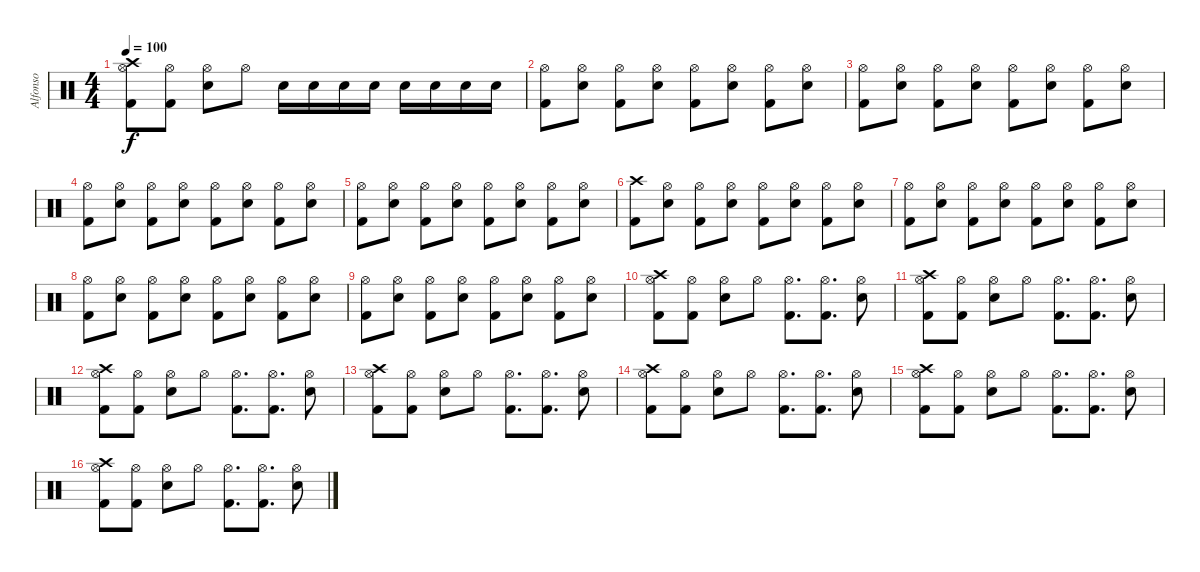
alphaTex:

\track ("Alfonso" "Alfonso") {instrument percussion}
\staff {score}
\articulation defaults
\ts (4 4)
\tempo 100
\clef neutral
\ks c
("Hi-Hat (open)" "Kick (hit) 2" "Crash high (hit)").8{dy f} ("Hi-Hat (open)" "Kick (hit) 2").8 ("Hi-Hat (open)" "Snare (hit) 2").8 "Hi-Hat (open)".8 "Snare (hit) 2".16 "Snare (hit) 2".16 "Snare (hit) 2".16 "Snare (hit) 2".16 "Snare (hit) 2".16 "Snare (hit) 2".16 "Snare (hit) 2".16 "Snare (hit) 2".16 |
("Hi-Hat (open)" "Kick (hit) 2").8 ("Hi-Hat (open)" "Electric Snare (hit)").8 ("Hi-Hat (open)" "Kick (hit) 2").8 ("Hi-Hat (open)" "Electric Snare (hit)").8 ("Hi-Hat (open)" "Kick (hit) 2").8 ("Hi-Hat (open)" "Electric Snare (hit)").8 ("Hi-Hat (open)" "Kick (hit) 2").8 ("Hi-Hat (open)" "Electric Snare (hit)").8 |
("Hi-Hat (open)" "Kick (hit) 2").8 ("Hi-Hat (open)" "Electric Snare (hit)").8 ("Hi-Hat (open)" "Kick (hit) 2").8 ("Hi-Hat (open)" "Electric Snare (hit)").8 ("Hi-Hat (open)" "Kick (hit) 2").8 ("Hi-Hat (open)" "Electric Snare (hit)").8 ("Hi-Hat (open)" "Kick (hit) 2").8 ("Hi-Hat (open)" "Electric Snare (hit)").8 |
("Hi-Hat (open)" "Kick (hit) 2").8 ("Hi-Hat (open)" "Electric Snare (hit)").8 ("Hi-Hat (open)" "Kick (hit) 2").8 ("Hi-Hat (open)" "Electric Snare (hit)").8 ("Hi-Hat (open)" "Kick (hit) 2").8 ("Hi-Hat (open)" "Electric Snare (hit)").8 ("Hi-Hat (open)" "Kick (hit) 2").8 ("Hi-Hat (open)" "Electric Snare (hit)").8 |
("Hi-Hat (open)" "Kick (hit) 2").8 ("Hi-Hat (open)" "Electric Snare (hit)").8 ("Hi-Hat (open)" "Kick (hit) 2").8 ("Hi-Hat (open)" "Electric Snare (hit)").8 ("Hi-Hat (open)" "Kick (hit) 2").8 ("Hi-Hat (open)" "Electric Snare (hit)").8 ("Hi-Hat (open)" "Kick (hit) 2").8 ("Hi-Hat (open)" "Electric Snare (hit)").8 |
("Crash high (hit)" "Kick (hit) 2").8 ("Hi-Hat (open)" "Electric Snare (hit)").8 ("Hi-Hat (open)" "Kick (hit) 2").8 ("Hi-Hat (open)" "Electric Snare (hit)").8 ("Hi-Hat (open)" "Kick (hit) 2").8 ("Hi-Hat (open)" "Electric Snare (hit)").8 ("Hi-Hat (open)" "Kick (hit) 2").8 ("Hi-Hat (open)" "Electric Snare (hit)").8 |
("Hi-Hat (open)" "Kick (hit) 2").8 ("Hi-Hat (open)" "Electric Snare (hit)").8 ("Hi-Hat (open)" "Kick (hit) 2").8 ("Hi-Hat (open)" "Electric Snare (hit)").8 ("Hi-Hat (open)" "Kick (hit) 2").8 ("Hi-Hat (open)" "Electric Snare (hit)").8 ("Hi-Hat (open)" "Kick (hit) 2").8 ("Hi-Hat (open)" "Electric Snare (hit)").8 |
("Hi-Hat (open)" "Kick (hit) 2").8 ("Hi-Hat (open)" "Electric Snare (hit)").8 ("Hi-Hat (open)" "Kick (hit) 2").8 ("Hi-Hat (open)" "Electric Snare (hit)").8 ("Hi-Hat (open)" "Kick (hit) 2").8 ("Hi-Hat (open)" "Electric Snare (hit)").8 ("Hi-Hat (open)" "Kick (hit) 2").8 ("Hi-Hat (open)" "Electric Snare (hit)").8 |
("Hi-Hat (open)" "Kick (hit) 2").8 ("Hi-Hat (open)" "Electric Snare (hit)").8 ("Hi-Hat (open)" "Kick (hit) 2").8 ("Hi-Hat (open)" "Electric Snare (hit)").8 ("Hi-Hat (open)" "Kick (hit) 2").8 ("Hi-Hat (open)" "Electric Snare (hit)").8 ("Hi-Hat (open)" "Kick (hit) 2").8 ("Hi-Hat (open)" "Electric Snare (hit)").8 |
("Hi-Hat (open)" "Kick (hit) 2" "Crash high (hit)").8 ("Hi-Hat (open)" "Kick (hit) 2").8 ("Hi-Hat (open)" "Snare (hit) 2").8 "Hi-Hat (open)".8 ("Hi-Hat (open)" "Kick (hit) 2").8{d} ("Hi-Hat (open)" "Kick (hit) 2").8{d} ("Hi-Hat (open)" "Snare (hit) 2").8 |
("Hi-Hat (open)" "Kick (hit) 2" "Crash high (hit)").8 ("Hi-Hat (open)" "Kick (hit) 2").8 ("Hi-Hat (open)" "Snare (hit) 2").8 "Hi-Hat (open)".8 ("Hi-Hat (open)" "Kick (hit) 2").8{d} ("Hi-Hat (open)" "Kick (hit) 2").8{d} ("Hi-Hat (open)" "Snare (hit) 2").8 |
("Hi-Hat (open)" "Kick (hit) 2" "Crash high (hit)").8 ("Hi-Hat (open)" "Kick (hit) 2").8 ("Hi-Hat (open)" "Snare (hit) 2").8 "Hi-Hat (open)".8 ("Hi-Hat (open)" "Kick (hit) 2").8{d} ("Hi-Hat (open)" "Kick (hit) 2").8{d} ("Hi-Hat (open)" "Snare (hit) 2").8 |
("Hi-Hat (open)" "Kick (hit) 2" "Crash high (hit)").8 ("Hi-Hat (open)" "Kick (hit) 2").8 ("Hi-Hat (open)" "Snare (hit) 2").8 "Hi-Hat (open)".8 ("Hi-Hat (open)" "Kick (hit) 2").8{d} ("Hi-Hat (open)" "Kick (hit) 2").8{d} ("Hi-Hat (open)" "Snare (hit) 2").8 |
("Hi-Hat (open)" "Kick (hit) 2" "Crash high (hit)").8 ("Hi-Hat (open)" "Kick (hit) 2").8 ("Hi-Hat (open)" "Snare (hit) 2").8 "Hi-Hat (open)".8 ("Hi-Hat (open)" "Kick (hit) 2").8{d} ("Hi-Hat (open)" "Kick (hit) 2").8{d} ("Hi-Hat (open)" "Snare (hit) 2").8 |
("Hi-Hat (open)" "Kick (hit) 2" "Crash high (hit)").8 ("Hi-Hat (open)" "Kick (hit) 2").8 ("Hi-Hat (open)" "Snare (hit) 2").8 "Hi-Hat (open)".8 ("Hi-Hat (open)" "Kick (hit) 2").8{d} ("Hi-Hat (open)" "Kick (hit) 2").8{d} ("Hi-Hat (open)" "Snare (hit) 2").8 |
("Hi-Hat (open)" "Kick (hit) 2" "Crash high (hit)").8 ("Hi-Hat (open)" "Kick (hit) 2").8 ("Hi-Hat (open)" "Snare (hit) 2").8 "Hi-Hat (open)".8 ("Hi-Hat (open)" "Kick (hit) 2").8{d} ("Hi-Hat (open)" "Kick (hit) 2").8{d} ("Hi-Hat (open)" "Snare (hit) 2").8
